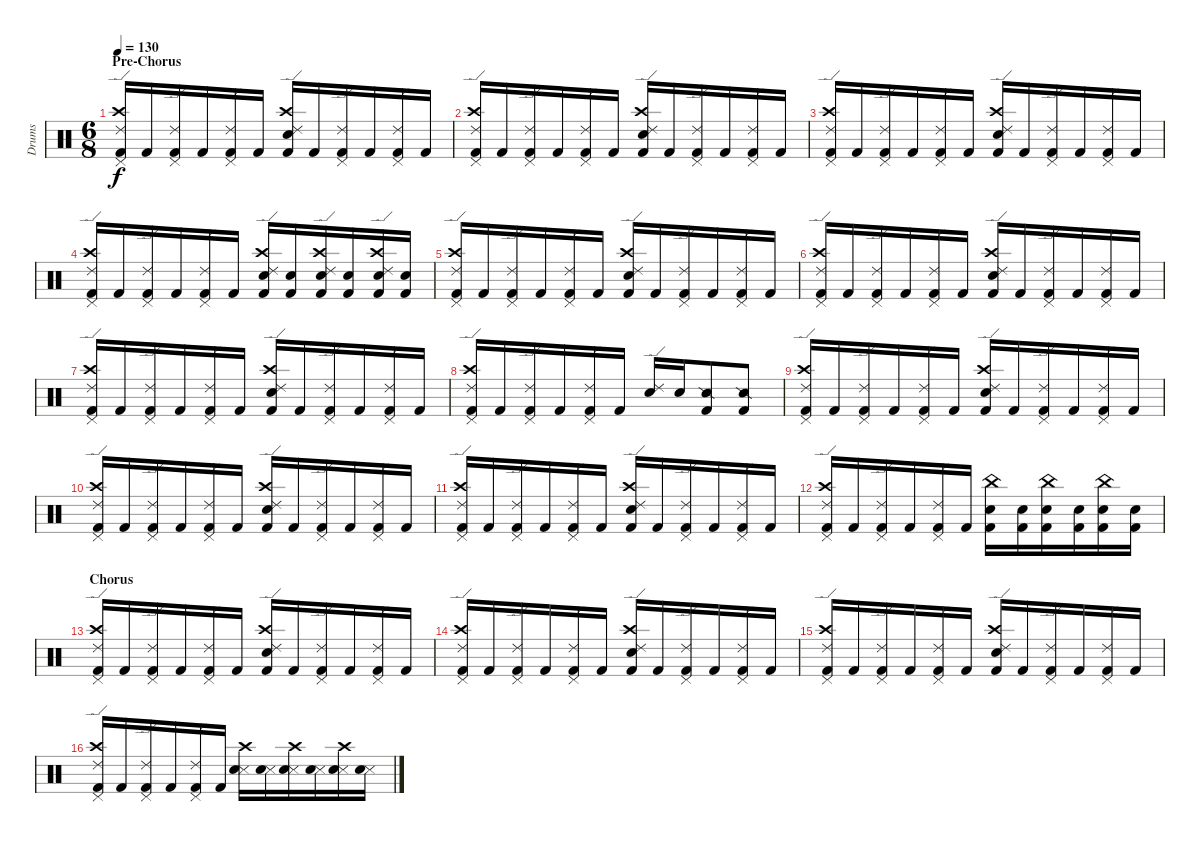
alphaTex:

\track ("Drums" "Drums") {instrument percussion}
\staff {score}
\articulation defaults
\ts (6 8)
\section ("" "Pre-Chorus")
\tempo 130
\clef neutral
\ks c
("Ride (edge) 2" "Crash high (hit)" "Pedal Hi-Hat (hit)" "Kick (hit) 2").16{dy f} "Kick (hit) 2".16 ("Ride (edge) 2" "Pedal Hi-Hat (hit)" "Kick (hit) 2").16 "Kick (hit) 2".16 ("Ride (edge) 2" "Pedal Hi-Hat (hit)" "Kick (hit) 2").16 "Kick (hit) 2".16 ("Ride (edge) 2" "Crash high (hit)" "Electric Snare (hit)" "Kick (hit) 2").16 "Kick (hit) 2".16 ("Ride (edge) 2" "Pedal Hi-Hat (hit)" "Kick (hit) 2").16 "Kick (hit) 2".16 ("Ride (edge) 2" "Pedal Hi-Hat (hit)" "Kick (hit) 2").16 "Kick (hit) 2".16 |
("Ride (edge) 2" "Crash high (hit)" "Pedal Hi-Hat (hit)" "Kick (hit) 2").16 "Kick (hit) 2".16 ("Ride (edge) 2" "Pedal Hi-Hat (hit)" "Kick (hit) 2").16 "Kick (hit) 2".16 ("Ride (edge) 2" "Pedal Hi-Hat (hit)" "Kick (hit) 2").16 "Kick (hit) 2".16 ("Ride (edge) 2" "Crash high (hit)" "Electric Snare (hit)" "Kick (hit) 2").16 "Kick (hit) 2".16 ("Ride (edge) 2" "Pedal Hi-Hat (hit)" "Kick (hit) 2").16 "Kick (hit) 2".16 ("Ride (edge) 2" "Pedal Hi-Hat (hit)" "Kick (hit) 2").16 "Kick (hit) 2".16 |
("Ride (edge) 2" "Crash high (hit)" "Pedal Hi-Hat (hit)" "Kick (hit) 2").16 "Kick (hit) 2".16 ("Ride (edge) 2" "Pedal Hi-Hat (hit)" "Kick (hit) 2").16 "Kick (hit) 2".16 ("Ride (edge) 2" "Pedal Hi-Hat (hit)" "Kick (hit) 2").16 "Kick (hit) 2".16 ("Ride (edge) 2" "Crash high (hit)" "Electric Snare (hit)" "Kick (hit) 2").16 "Kick (hit) 2".16 ("Ride (edge) 2" "Pedal Hi-Hat (hit)" "Kick (hit) 2").16 "Kick (hit) 2".16 ("Ride (edge) 2" "Pedal Hi-Hat (hit)" "Kick (hit) 2").16 "Kick (hit) 2".16 |
("Ride (edge) 2" "Crash high (hit)" "Pedal Hi-Hat (hit)" "Kick (hit) 2").16 "Kick (hit) 2".16 ("Ride (edge) 2" "Pedal Hi-Hat (hit)" "Kick (hit) 2").16 "Kick (hit) 2".16 ("Ride (edge) 2" "Pedal Hi-Hat (hit)" "Kick (hit) 2").16 "Kick (hit) 2".16 ("Ride (edge) 2" "Crash high (hit)" "Electric Snare (hit)" "Kick (hit) 2").16 ("Electric Snare (hit)" "Kick (hit) 2").16 ("Ride (edge) 2" "Crash high (hit)" "Electric Snare (hit)" "Kick (hit) 2").16 ("Electric Snare (hit)" "Kick (hit) 2").16 ("Ride (edge) 2" "Crash high (hit)" "Electric Snare (hit)" "Kick (hit) 2").16 ("Electric Snare (hit)" "Kick (hit) 2").16 |
("Ride (edge) 2" "Crash high (hit)" "Pedal Hi-Hat (hit)" "Kick (hit) 2").16 "Kick (hit) 2".16 ("Ride (edge) 2" "Pedal Hi-Hat (hit)" "Kick (hit) 2").16 "Kick (hit) 2".16 ("Ride (edge) 2" "Pedal Hi-Hat (hit)" "Kick (hit) 2").16 "Kick (hit) 2".16 ("Ride (edge) 2" "Crash high (hit)" "Electric Snare (hit)" "Kick (hit) 2").16 "Kick (hit) 2".16 ("Ride (edge) 2" "Pedal Hi-Hat (hit)" "Kick (hit) 2").16 "Kick (hit) 2".16 ("Ride (edge) 2" "Pedal Hi-Hat (hit)" "Kick (hit) 2").16 "Kick (hit) 2".16 |
("Ride (edge) 2" "Crash high (hit)" "Pedal Hi-Hat (hit)" "Kick (hit) 2").16 "Kick (hit) 2".16 ("Ride (edge) 2" "Pedal Hi-Hat (hit)" "Kick (hit) 2").16 "Kick (hit) 2".16 ("Ride (edge) 2" "Pedal Hi-Hat (hit)" "Kick (hit) 2").16 "Kick (hit) 2".16 ("Ride (edge) 2" "Crash high (hit)" "Electric Snare (hit)" "Kick (hit) 2").16 "Kick (hit) 2".16 ("Ride (edge) 2" "Pedal Hi-Hat (hit)" "Kick (hit) 2").16 "Kick (hit) 2".16 ("Ride (edge) 2" "Pedal Hi-Hat (hit)" "Kick (hit) 2").16 "Kick (hit) 2".16 |
("Ride (edge) 2" "Crash high (hit)" "Pedal Hi-Hat (hit)" "Kick (hit) 2").16 "Kick (hit) 2".16 ("Ride (edge) 2" "Pedal Hi-Hat (hit)" "Kick (hit) 2").16 "Kick (hit) 2".16 ("Ride (edge) 2" "Pedal Hi-Hat (hit)" "Kick (hit) 2").16 "Kick (hit) 2".16 ("Ride (edge) 2" "Crash high (hit)" "Electric Snare (hit)" "Kick (hit) 2").16 "Kick (hit) 2".16 ("Ride (edge) 2" "Pedal Hi-Hat (hit)" "Kick (hit) 2").16 "Kick (hit) 2".16 ("Ride (edge) 2" "Pedal Hi-Hat (hit)" "Kick (hit) 2").16 "Kick (hit) 2".16 |
("Ride (edge) 2" "Crash high (hit)" "Pedal Hi-Hat (hit)" "Kick (hit) 2").16 "Kick (hit) 2".16 ("Ride (edge) 2" "Pedal Hi-Hat (hit)" "Kick (hit) 2").16 "Kick (hit) 2".16 ("Ride (edge) 2" "Pedal Hi-Hat (hit)" "Kick (hit) 2").16 "Kick (hit) 2".16 ("Ride (edge) 2" "Electric Snare (hit)").16 "Electric Snare (hit)".16 ("Snare (side stick) 2" "Kick (hit) 2").8 ("Snare (side stick) 2" "Kick (hit) 2").8 |
("Ride (edge) 2" "Crash high (hit)" "Pedal Hi-Hat (hit)" "Kick (hit) 2").16 "Kick (hit) 2".16 ("Ride (edge) 2" "Pedal Hi-Hat (hit)" "Kick (hit) 2").16 "Kick (hit) 2".16 ("Ride (edge) 2" "Pedal Hi-Hat (hit)" "Kick (hit) 2").16 "Kick (hit) 2".16 ("Ride (edge) 2" "Crash high (hit)" "Electric Snare (hit)" "Kick (hit) 2").16 "Kick (hit) 2".16 ("Ride (edge) 2" "Pedal Hi-Hat (hit)" "Kick (hit) 2").16 "Kick (hit) 2".16 ("Ride (edge) 2" "Pedal Hi-Hat (hit)" "Kick (hit) 2").16 "Kick (hit) 2".16 |
("Ride (edge) 2" "Crash high (hit)" "Pedal Hi-Hat (hit)" "Kick (hit) 2").16 "Kick (hit) 2".16 ("Ride (edge) 2" "Pedal Hi-Hat (hit)" "Kick (hit) 2").16 "Kick (hit) 2".16 ("Ride (edge) 2" "Pedal Hi-Hat (hit)" "Kick (hit) 2").16 "Kick (hit) 2".16 ("Ride (edge) 2" "Crash high (hit)" "Electric Snare (hit)" "Kick (hit) 2").16 "Kick (hit) 2".16 ("Ride (edge) 2" "Pedal Hi-Hat (hit)" "Kick (hit) 2").16 "Kick (hit) 2".16 ("Ride (edge) 2" "Pedal Hi-Hat (hit)" "Kick (hit) 2").16 "Kick (hit) 2".16 |
("Ride (edge) 2" "Crash high (hit)" "Pedal Hi-Hat (hit)" "Kick (hit) 2").16 "Kick (hit) 2".16 ("Ride (edge) 2" "Pedal Hi-Hat (hit)" "Kick (hit) 2").16 "Kick (hit) 2".16 ("Ride (edge) 2" "Pedal Hi-Hat (hit)" "Kick (hit) 2").16 "Kick (hit) 2".16 ("Ride (edge) 2" "Crash high (hit)" "Electric Snare (hit)" "Kick (hit) 2").16 "Kick (hit) 2".16 ("Ride (edge) 2" "Pedal Hi-Hat (hit)" "Kick (hit) 2").16 "Kick (hit) 2".16 ("Ride (edge) 2" "Pedal Hi-Hat (hit)" "Kick (hit) 2").16 "Kick (hit) 2".16 |
("Ride (edge) 2" "Crash high (hit)" "Pedal Hi-Hat (hit)" "Kick (hit) 2").16 "Kick (hit) 2".16 ("Ride (edge) 2" "Pedal Hi-Hat (hit)" "Kick (hit) 2").16 "Kick (hit) 2".16 ("Ride (edge) 2" "Pedal Hi-Hat (hit)" "Kick (hit) 2").16 "Kick (hit) 2".16 ("China (hit)" "Electric Snare (hit)" "Kick (hit) 2").16 ("Electric Snare (hit)" "Kick (hit) 2").16 ("China (hit)" "Electric Snare (hit)" "Kick (hit) 2").16 ("Electric Snare (hit)" "Kick (hit) 2").16 ("China (hit)" "Electric Snare (hit)" "Kick (hit) 2").16 ("Electric Snare (hit)" "Kick (hit) 2").16 |
\section ("" "Chorus")
("Ride (edge) 2" "Crash high (hit)" "Pedal Hi-Hat (hit)" "Kick (hit) 2").16 "Kick (hit) 2".16 ("Ride (edge) 2" "Pedal Hi-Hat (hit)" "Kick (hit) 2").16 "Kick (hit) 2".16 ("Ride (edge) 2" "Pedal Hi-Hat (hit)" "Kick (hit) 2").16 "Kick (hit) 2".16 ("Ride (edge) 2" "Crash high (hit)" "Electric Snare (hit)" "Kick (hit) 2").16 "Kick (hit) 2".16 ("Ride (edge) 2" "Pedal Hi-Hat (hit)" "Kick (hit) 2").16 "Kick (hit) 2".16 ("Ride (edge) 2" "Pedal Hi-Hat (hit)" "Kick (hit) 2").16 "Kick (hit) 2".16 |
("Ride (edge) 2" "Crash high (hit)" "Pedal Hi-Hat (hit)" "Kick (hit) 2").16 "Kick (hit) 2".16 ("Ride (edge) 2" "Pedal Hi-Hat (hit)" "Kick (hit) 2").16 "Kick (hit) 2".16 ("Ride (edge) 2" "Pedal Hi-Hat (hit)" "Kick (hit) 2").16 "Kick (hit) 2".16 ("Ride (edge) 2" "Crash high (hit)" "Electric Snare (hit)" "Kick (hit) 2").16 "Kick (hit) 2".16 ("Ride (edge) 2" "Pedal Hi-Hat (hit)" "Kick (hit) 2").16 "Kick (hit) 2".16 ("Ride (edge) 2" "Pedal Hi-Hat (hit)" "Kick (hit) 2").16 "Kick (hit) 2".16 |
("Ride (edge) 2" "Crash high (hit)" "Pedal Hi-Hat (hit)" "Kick (hit) 2").16 "Kick (hit) 2".16 ("Ride (edge) 2" "Pedal Hi-Hat (hit)" "Kick (hit) 2").16 "Kick (hit) 2".16 ("Ride (edge) 2" "Pedal Hi-Hat (hit)" "Kick (hit) 2").16 "Kick (hit) 2".16 ("Ride (edge) 2" "Crash high (hit)" "Electric Snare (hit)" "Kick (hit) 2").16 "Kick (hit) 2".16 ("Ride (edge) 2" "Pedal Hi-Hat (hit)" "Kick (hit) 2").16 "Kick (hit) 2".16 ("Ride (edge) 2" "Pedal Hi-Hat (hit)" "Kick (hit) 2").16 "Kick (hit) 2".16 |
("Ride (edge) 2" "Crash high (hit)" "Pedal Hi-Hat (hit)" "Kick (hit) 2").16 "Kick (hit) 2".16 ("Ride (edge) 2" "Pedal Hi-Hat (hit)" "Kick (hit) 2").16 "Kick (hit) 2".16 ("Ride (edge) 2" "Pedal Hi-Hat (hit)" "Kick (hit) 2").16 "Kick (hit) 2".16 ("Crash high (hit)" "Snare (side stick) 3" "Electric Snare (hit)").16 ("Snare (side stick) 3" "Electric Snare (hit)").16 ("Crash high (hit)" "Snare (side stick) 3" "Electric Snare (hit)").16 ("Snare (side stick) 3" "Electric Snare (hit)").16 ("Crash high (hit)" "Snare (side stick) 3" "Electric Snare (hit)").16 ("Snare (side stick) 3" "Electric Snare (hit)").16
